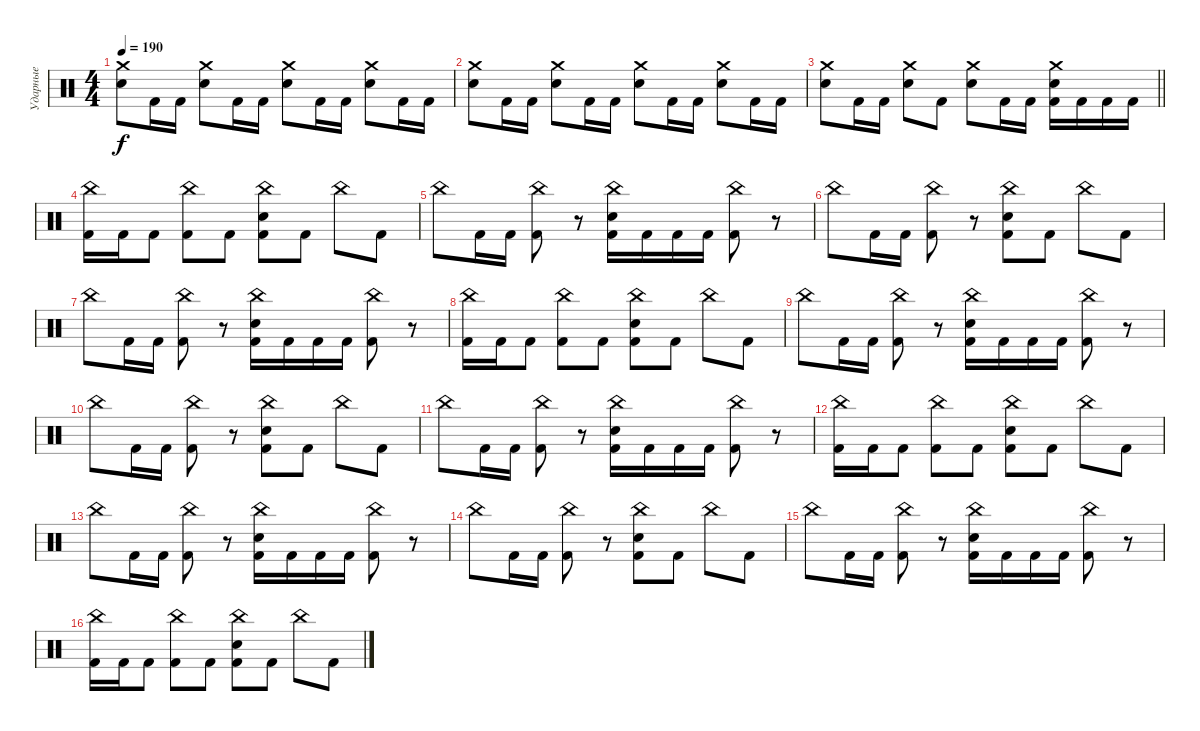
\track ("Ударные" "Ударные") {instrument percussion}
\staff {score}
\articulation defaults
\ts (4 4)
\tempo 190
\clef neutral
\ks c
("Crash medium (hit)" "Snare (hit) 2").8{dy f} "Kick (hit) 2".16 "Kick (hit) 2".16 ("Crash medium (hit)" "Snare (hit) 2").8 "Kick (hit) 2".16 "Kick (hit) 2".16 ("Crash medium (hit)" "Snare (hit) 2").8 "Kick (hit) 2".16 "Kick (hit) 2".16 ("Crash medium (hit)" "Snare (hit) 2").8 "Kick (hit) 2".16 "Kick (hit) 2".16 |
("Crash medium (hit)" "Snare (hit) 2").8 "Kick (hit) 2".16 "Kick (hit) 2".16 ("Crash medium (hit)" "Snare (hit) 2").8 "Kick (hit) 2".16 "Kick (hit) 2".16 ("Crash medium (hit)" "Snare (hit) 2").8 "Kick (hit) 2".16 "Kick (hit) 2".16 ("Crash medium (hit)" "Snare (hit) 2").8 "Kick (hit) 2".16 "Kick (hit) 2".16 |
\barLineRight lightlight
("Crash medium (hit)" "Snare (hit) 2").8 "Kick (hit) 2".16 "Kick (hit) 2".16 ("Crash medium (hit)" "Snare (hit) 2").8 "Kick (hit) 2".8 ("Crash medium (hit)" "Snare (hit) 2").8 "Kick (hit) 2".16 "Kick (hit) 2".16 ("Crash medium (hit)" "Snare (hit) 2" "Kick (hit) 2").16 "Kick (hit) 2".16 "Kick (hit) 2".16 "Kick (hit) 2".16 |
\section ("" "")
("China (hit)" "Kick (hit) 2").16 "Kick (hit) 2".16 "Kick (hit) 2".8 ("China (hit)" "Kick (hit) 2").8 "Kick (hit) 2".8 ("China (hit)" "Snare (hit) 2" "Kick (hit) 2").8 "Kick (hit) 2".8 "China (hit)".8 "Kick (hit) 2".8 |
"China (hit)".8 "Kick (hit) 2".16 "Kick (hit) 2".16 ("China (hit)" "Kick (hit) 2").8 r.8 ("China (hit)" "Snare (hit) 2" "Kick (hit) 2").16 "Kick (hit) 2".16 "Kick (hit) 2".16 "Kick (hit) 2".16 ("China (hit)" "Kick (hit) 2").8 r.8 |
"China (hit)".8 "Kick (hit) 2".16 "Kick (hit) 2".16 ("China (hit)" "Kick (hit) 2").8 r.8 ("China (hit)" "Snare (hit) 2" "Kick (hit) 2").8 "Kick (hit) 2".8 "China (hit)".8 "Kick (hit) 2".8 |
"China (hit)".8 "Kick (hit) 2".16 "Kick (hit) 2".16 ("China (hit)" "Kick (hit) 2").8 r.8 ("China (hit)" "Snare (hit) 2" "Kick (hit) 2").16 "Kick (hit) 2".16 "Kick (hit) 2".16 "Kick (hit) 2".16 ("China (hit)" "Kick (hit) 2").8 r.8 |
("China (hit)" "Kick (hit) 2").16 "Kick (hit) 2".16 "Kick (hit) 2".8 ("China (hit)" "Kick (hit) 2").8 "Kick (hit) 2".8 ("China (hit)" "Snare (hit) 2" "Kick (hit) 2").8 "Kick (hit) 2".8 "China (hit)".8 "Kick (hit) 2".8 |
"China (hit)".8 "Kick (hit) 2".16 "Kick (hit) 2".16 ("China (hit)" "Kick (hit) 2").8 r.8 ("China (hit)" "Snare (hit) 2" "Kick (hit) 2").16 "Kick (hit) 2".16 "Kick (hit) 2".16 "Kick (hit) 2".16 ("China (hit)" "Kick (hit) 2").8 r.8 |
"China (hit)".8 "Kick (hit) 2".16 "Kick (hit) 2".16 ("China (hit)" "Kick (hit) 2").8 r.8 ("China (hit)" "Snare (hit) 2" "Kick (hit) 2").8 "Kick (hit) 2".8 "China (hit)".8 "Kick (hit) 2".8 |
"China (hit)".8 "Kick (hit) 2".16 "Kick (hit) 2".16 ("China (hit)" "Kick (hit) 2").8 r.8 ("China (hit)" "Snare (hit) 2" "Kick (hit) 2").16 "Kick (hit) 2".16 "Kick (hit) 2".16 "Kick (hit) 2".16 ("China (hit)" "Kick (hit) 2").8 r.8 |
("China (hit)" "Kick (hit) 2").16 "Kick (hit) 2".16 "Kick (hit) 2".8 ("China (hit)" "Kick (hit) 2").8 "Kick (hit) 2".8 ("China (hit)" "Snare (hit) 2" "Kick (hit) 2").8 "Kick (hit) 2".8 "China (hit)".8 "Kick (hit) 2".8 |
"China (hit)".8 "Kick (hit) 2".16 "Kick (hit) 2".16 ("China (hit)" "Kick (hit) 2").8 r.8 ("China (hit)" "Snare (hit) 2" "Kick (hit) 2").16 "Kick (hit) 2".16 "Kick (hit) 2".16 "Kick (hit) 2".16 ("China (hit)" "Kick (hit) 2").8 r.8 |
"China (hit)".8 "Kick (hit) 2".16 "Kick (hit) 2".16 ("China (hit)" "Kick (hit) 2").8 r.8 ("China (hit)" "Snare (hit) 2" "Kick (hit) 2").8 "Kick (hit) 2".8 "China (hit)".8 "Kick (hit) 2".8 |
"China (hit)".8 "Kick (hit) 2".16 "Kick (hit) 2".16 ("China (hit)" "Kick (hit) 2").8 r.8 ("China (hit)" "Snare (hit) 2" "Kick (hit) 2").16 "Kick (hit) 2".16 "Kick (hit) 2".16 "Kick (hit) 2".16 ("China (hit)" "Kick (hit) 2").8 r.8 |
("China (hit)" "Kick (hit) 2").16 "Kick (hit) 2".16 "Kick (hit) 2".8 ("China (hit)" "Kick (hit) 2").8 "Kick (hit) 2".8 ("China (hit)" "Snare (hit) 2" "Kick (hit) 2").8 "Kick (hit) 2".8 "China (hit)".8 "Kick (hit) 2".8
